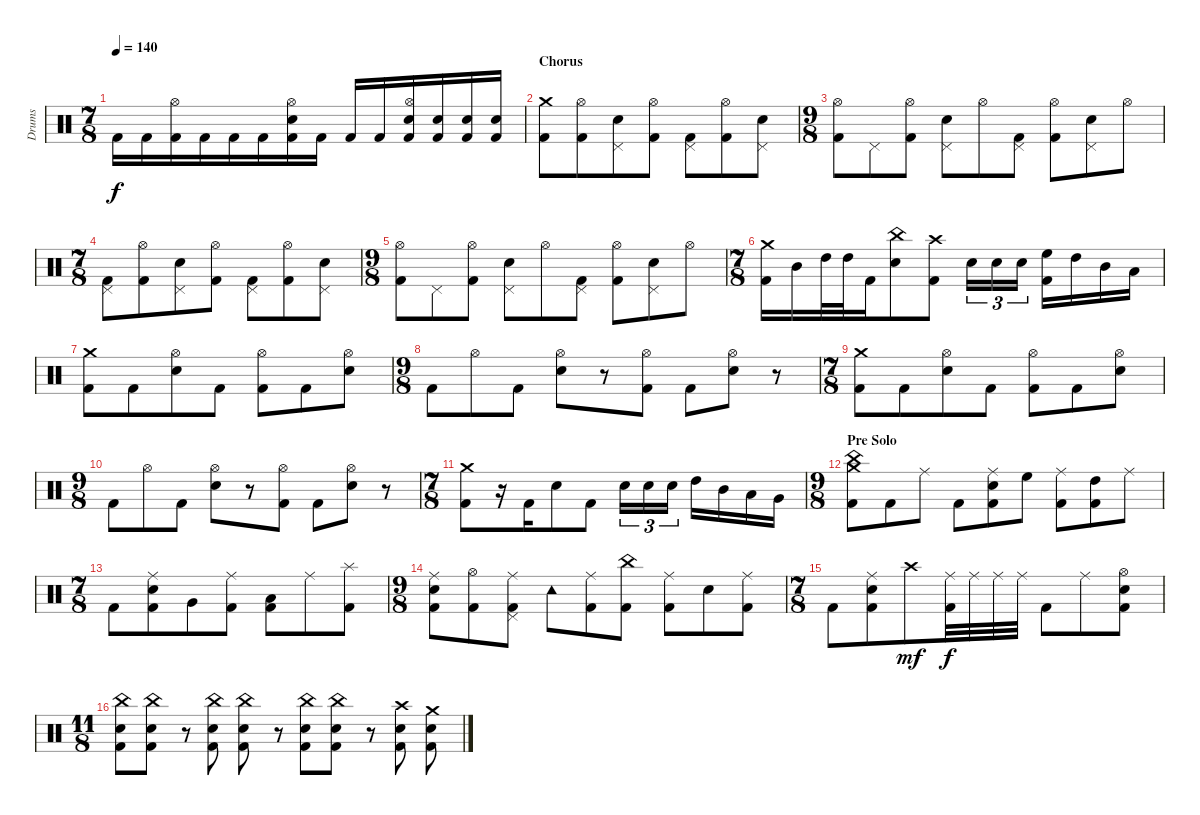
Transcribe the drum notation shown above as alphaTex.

\track ("Drums" "Drums") {instrument percussion}
\staff {score}
\articulation defaults
\ts (7 8)
\tempo 140
\clef neutral
\ks c "Kick (hit) 2".16{dy f} "Kick (hit) 2".16
("Hi-Hat (open)" "Kick (hit) 2").16 "Kick (hit) 2".16 "Kick (hit) 2".16 "Kick (hit) 2".16 ("Hi-Hat (open)" "Electric Snare (hit)" "Kick (hit) 2").16 "Kick (hit) 2".16 "Kick (hit) 2".16 "Kick (hit) 2".16 ("Hi-Hat (open)" "Electric Snare (hit)" "Kick (hit) 2").16 ("Electric Snare (hit)" "Kick (hit) 2").16 ("Electric Snare (hit)" "Kick (hit) 2").16 ("Electric Snare (hit)" "Kick (hit) 2").16 |
\section ("" "Chorus")
("Crash medium (hit)" "Kick (hit) 2").8 ("Hi-Hat (open)" "Kick (hit) 2").8 ("Pedal Hi-Hat (hit)" "Electric Snare (hit)").8 ("Hi-Hat (open)" "Kick (hit) 2").8 ("Pedal Hi-Hat (hit)" "Kick (hit) 2").8 ("Hi-Hat (open)" "Kick (hit) 2").8 ("Pedal Hi-Hat (hit)" "Electric Snare (hit)").8 |
\ts (9 8)
("Hi-Hat (open)" "Kick (hit) 2").8 "Pedal Hi-Hat (hit)".8 ("Hi-Hat (open)" "Kick (hit) 2").8 ("Pedal Hi-Hat (hit)" "Electric Snare (hit)").8 "Hi-Hat (open)".8 ("Pedal Hi-Hat (hit)" "Kick (hit) 2").8 ("Hi-Hat (open)" "Kick (hit) 2").8 ("Pedal Hi-Hat (hit)" "Electric Snare (hit)").8 "Hi-Hat (open)".8 |
\ts (7 8)
("Pedal Hi-Hat (hit)" "Kick (hit) 2").8 ("Hi-Hat (open)" "Kick (hit) 2").8 ("Pedal Hi-Hat (hit)" "Electric Snare (hit)").8 ("Hi-Hat (open)" "Kick (hit) 2").8 ("Pedal Hi-Hat (hit)" "Kick (hit) 2").8 ("Hi-Hat (open)" "Kick (hit) 2").8 ("Pedal Hi-Hat (hit)" "Electric Snare (hit)").8 |
\ts (9 8)
("Hi-Hat (open)" "Kick (hit) 2").8 "Pedal Hi-Hat (hit)".8 ("Hi-Hat (open)" "Kick (hit) 2").8 ("Pedal Hi-Hat (hit)" "Electric Snare (hit)").8 "Hi-Hat (open)".8 ("Pedal Hi-Hat (hit)" "Kick (hit) 2").8 ("Hi-Hat (open)" "Kick (hit) 2").8 ("Pedal Hi-Hat (hit)" "Electric Snare (hit)").8 "Hi-Hat (open)".8 |
\ts (7 8)
("Crash medium (hit)" "Kick (hit) 2").16 "Mid Tom (hit)".16 "High Tom (hit)".32 "High Tom (hit)".32 "Kick (hit) 2".16 ("China (hit)" "Electric Snare (hit)").8 ("Crash high (hit)" "Kick (hit) 2").8 "Electric Snare (hit)".16{tu (3 2)} "Electric Snare (hit)".16{tu (3 2)} "Electric Snare (hit)".16{tu (3 2)} ("High Floor Tom (hit)" "Kick (hit) 2").16 "High Tom (hit)".16 "Mid Tom (hit)".16 "Low Tom (hit)".16 |
("Crash medium (hit)" "Kick (hit) 2").8 "Kick (hit) 2".8 ("Hi-Hat (open)" "Electric Snare (hit)").8 "Kick (hit) 2".8 ("Hi-Hat (open)" "Kick (hit) 2").8 "Kick (hit) 2".8 ("Hi-Hat (open)" "Electric Snare (hit)").8 |
\ts (9 8)
"Kick (hit) 2".8 "Hi-Hat (open)".8 "Kick (hit) 2".8 ("Hi-Hat (open)" "Electric Snare (hit)").8 r.8 ("Hi-Hat (open)" "Kick (hit) 2").8 "Kick (hit) 2".8 ("Hi-Hat (open)" "Electric Snare (hit)").8 r.8 |
\ts (7 8)
("Crash medium (hit)" "Kick (hit) 2").8 "Kick (hit) 2".8 ("Hi-Hat (open)" "Electric Snare (hit)").8 "Kick (hit) 2".8 ("Hi-Hat (open)" "Kick (hit) 2").8 "Kick (hit) 2".8 ("Hi-Hat (open)" "Electric Snare (hit)").8 |
\ts (9 8)
"Kick (hit) 2".8 "Hi-Hat (open)".8 "Kick (hit) 2".8 ("Hi-Hat (open)" "Electric Snare (hit)").8 r.8 ("Hi-Hat (open)" "Kick (hit) 2").8 "Kick (hit) 2".8 ("Hi-Hat (open)" "Electric Snare (hit)").8 r.8 |
\ts (7 8)
("Crash medium (hit)" "Kick (hit) 2").8 r.16 "Kick (hit) 2".16 "Electric Snare (hit)".8 "Kick (hit) 2".8 "Electric Snare (hit)".16{tu (3 2)} "Electric Snare (hit)".16{tu (3 2)} "Electric Snare (hit)".16{tu (3 2)} "High Tom (hit)".16 "Mid Tom (hit)".16 "Low Tom (hit)".16 "Very Low Tom (hit)".16 |
\ts (9 8)
\section ("" "Pre Solo")
("Crash medium (hit)" "China (hit)" "Kick (hit) 2").8 "Kick (hit) 2".8 "Ride (middle)".8 "Kick (hit) 2".8 ("Ride (middle)" "Electric Snare (hit)" "Kick (hit) 2").8 "High Floor Tom (hit)".8 ("Ride (middle)" "Kick (hit) 2").8 ("High Tom (hit)" "Kick (hit) 2").8 "Ride (middle)".8 |
\ts (7 8)
"Kick (hit) 2".8 ("Ride (middle)" "Electric Snare (hit)" "Kick (hit) 2").8 "Very Low Tom (hit)".8 ("Ride (middle)" "Kick (hit) 2").8 ("Low Floor Tom (hit)" "Kick (hit) 2").8 "Ride (middle)".8 ("Splash (hit)" "Kick (hit) 2").8 |
\ts (9 8)
("Ride (middle)" "Electric Snare (hit)" "Kick (hit) 2").8 ("Hi-Hat (open)" "Kick (hit) 2").8 ("Ride (middle)" "Pedal Hi-Hat (hit)" "Kick (hit) 2").8 "Tambourine (hit)".8 ("Ride (middle)" "Kick (hit) 2").8 ("China (hit)" "Kick (hit) 2").8 ("Ride (middle)" "Kick (hit) 2").8 "Electric Snare (hit)".8 ("Ride (middle)" "Kick (hit) 2").8 |
\ts (7 8)
"Kick (hit) 2".8 ("Ride (middle)" "Electric Snare (hit)" "Kick (hit) 2").8 "Crash high (hit)".8{dy mf} ("Ride (middle)" "Kick (hit) 2").32{dy f} "Ride (middle)".32 "Ride (middle)".32 "Ride (middle)".32 "Kick (hit) 2".8 "Ride (middle)".8 ("Hi-Hat (open)" "Electric Snare (hit)" "Kick (hit) 2").8 |
\ts (11 8)
("China (hit)" "Electric Snare (hit)" "Kick (hit) 2").8 ("China (hit)" "Electric Snare (hit)" "Kick (hit) 2").8 r.8 ("China (hit)" "Electric Snare (hit)" "Kick (hit) 2").8 ("China (hit)" "Electric Snare (hit)" "Kick (hit) 2").8 r.8 ("China (hit)" "Electric Snare (hit)" "Kick (hit) 2").8 ("China (hit)" "Electric Snare (hit)" "Kick (hit) 2").8 r.8 ("Crash high (hit)" "Electric Snare (hit)" "Kick (hit) 2").8 ("Crash medium (hit)" "Electric Snare (hit)" "Kick (hit) 2").8
